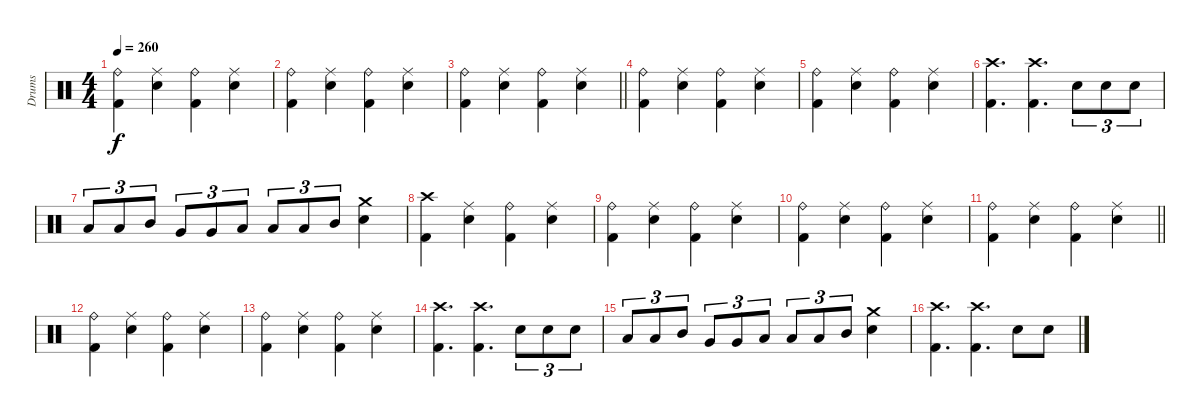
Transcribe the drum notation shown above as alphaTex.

\track ("Drums" "Drums") {instrument percussion}
\staff {score}
\articulation defaults
\ts (4 4)
\tempo 260
\clef neutral
\ks c
("Ride (bell)" "Kick (hit) 2").4{dy f} ("Ride (middle)" "Electric Snare (hit)").4 ("Ride (bell)" "Kick (hit) 2").4 ("Ride (middle)" "Electric Snare (hit)").4 |
("Ride (bell)" "Kick (hit) 2").4 ("Ride (middle)" "Electric Snare (hit)").4 ("Ride (bell)" "Kick (hit) 2").4 ("Ride (middle)" "Electric Snare (hit)").4 |
\barLineRight lightlight
("Ride (bell)" "Kick (hit) 2").4 ("Ride (middle)" "Electric Snare (hit)").4 ("Ride (bell)" "Kick (hit) 2").4 ("Ride (middle)" "Electric Snare (hit)").4 |
("Ride (bell)" "Kick (hit) 2").4 ("Ride (middle)" "Electric Snare (hit)").4 ("Ride (bell)" "Kick (hit) 2").4 ("Ride (middle)" "Electric Snare (hit)").4 |
("Ride (bell)" "Kick (hit) 2").4 ("Ride (middle)" "Electric Snare (hit)").4 ("Ride (bell)" "Kick (hit) 2").4 ("Ride (middle)" "Electric Snare (hit)").4 |
("Crash high (hit)" "Kick (hit) 2").4{d} ("Crash high (hit)" "Kick (hit) 2").4{d} "Electric Snare (hit)".8{tu (3 2)} "Electric Snare (hit)".8{tu (3 2)} "Electric Snare (hit)".8{tu (3 2)} |
"Low Tom (hit)".8{tu (3 2)} "Low Tom (hit)".8{tu (3 2)} "Mid Tom (hit)".8{tu (3 2)} "Very Low Tom (hit)".8{tu (3 2)} "Very Low Tom (hit)".8{tu (3 2)} "Low Tom (hit)".8{tu (3 2)} "Low Tom (hit)".8{tu (3 2)} "Low Tom (hit)".8{tu (3 2)} "Mid Tom (hit)".8{tu (3 2)} ("Crash medium (hit)" "Electric Snare (hit)").4 |
("Crash high (hit)" "Kick (hit) 2").4 ("Ride (middle)" "Electric Snare (hit)").4 ("Ride (bell)" "Kick (hit) 2").4 ("Ride (middle)" "Electric Snare (hit)").4 |
("Ride (bell)" "Kick (hit) 2").4 ("Ride (middle)" "Electric Snare (hit)").4 ("Ride (bell)" "Kick (hit) 2").4 ("Ride (middle)" "Electric Snare (hit)").4 |
("Ride (bell)" "Kick (hit) 2").4 ("Ride (middle)" "Electric Snare (hit)").4 ("Ride (bell)" "Kick (hit) 2").4 ("Ride (middle)" "Electric Snare (hit)").4 |
\barLineRight lightlight
("Ride (bell)" "Kick (hit) 2").4 ("Ride (middle)" "Electric Snare (hit)").4 ("Ride (bell)" "Kick (hit) 2").4 ("Ride (middle)" "Electric Snare (hit)").4 |
("Ride (bell)" "Kick (hit) 2").4 ("Ride (middle)" "Electric Snare (hit)").4 ("Ride (bell)" "Kick (hit) 2").4 ("Ride (middle)" "Electric Snare (hit)").4 |
("Ride (bell)" "Kick (hit) 2").4 ("Ride (middle)" "Electric Snare (hit)").4 ("Ride (bell)" "Kick (hit) 2").4 ("Ride (middle)" "Electric Snare (hit)").4 |
("Crash high (hit)" "Kick (hit) 2").4{d} ("Crash high (hit)" "Kick (hit) 2").4{d} "Electric Snare (hit)".8{tu (3 2)} "Electric Snare (hit)".8{tu (3 2)} "Electric Snare (hit)".8{tu (3 2)} |
"Low Tom (hit)".8{tu (3 2)} "Low Tom (hit)".8{tu (3 2)} "Mid Tom (hit)".8{tu (3 2)} "Very Low Tom (hit)".8{tu (3 2)} "Very Low Tom (hit)".8{tu (3 2)} "Low Tom (hit)".8{tu (3 2)} "Low Tom (hit)".8{tu (3 2)} "Low Tom (hit)".8{tu (3 2)} "Mid Tom (hit)".8{tu (3 2)} ("Crash medium (hit)" "Electric Snare (hit)").4 |
("Crash high (hit)" "Kick (hit) 2").4{d} ("Crash high (hit)" "Kick (hit) 2").4{d} "Electric Snare (hit)".8 "Electric Snare (hit)".8
